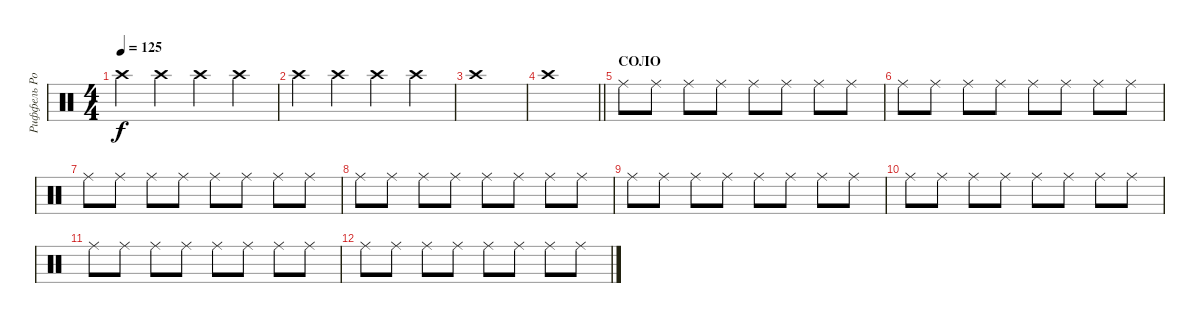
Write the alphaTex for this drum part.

\track ("Риффель Роман(хэты)" "Риффель Ро") {instrument percussion}
\staff {score}
\articulation defaults
\ts (4 4)
\tempo 125
\clef neutral
\ks c "Crash high (hit)".4{dy f} "Crash high (hit)".4 "Crash high (hit)".4 "Crash high (hit)".4
|
"Crash high (hit)".4 "Crash high (hit)".4 "Crash high (hit)".4 "Crash high (hit)".4 |
"Crash high (hit)".1 |
\barLineRight lightlight "Crash high (hit)".1
|
\section ("" "СОЛО")
"Ride (middle)".8 "Ride (middle)".8 "Ride (middle)".8 "Ride (middle)".8 "Ride (middle)".8 "Ride (middle)".8 "Ride (middle)".8 "Ride (middle)".8 |
"Ride (middle)".8 "Ride (middle)".8 "Ride (middle)".8 "Ride (middle)".8 "Ride (middle)".8 "Ride (middle)".8 "Ride (middle)".8 "Ride (middle)".8 |
"Ride (middle)".8 "Ride (middle)".8 "Ride (middle)".8 "Ride (middle)".8 "Ride (middle)".8 "Ride (middle)".8 "Ride (middle)".8 "Ride (middle)".8 |
"Ride (middle)".8 "Ride (middle)".8 "Ride (middle)".8 "Ride (middle)".8 "Ride (middle)".8 "Ride (middle)".8 "Ride (middle)".8 "Ride (middle)".8 |
"Ride (middle)".8 "Ride (middle)".8 "Ride (middle)".8 "Ride (middle)".8 "Ride (middle)".8 "Ride (middle)".8 "Ride (middle)".8 "Ride (middle)".8 |
"Ride (middle)".8 "Ride (middle)".8 "Ride (middle)".8 "Ride (middle)".8 "Ride (middle)".8 "Ride (middle)".8 "Ride (middle)".8 "Ride (middle)".8 |
"Ride (middle)".8 "Ride (middle)".8 "Ride (middle)".8 "Ride (middle)".8 "Ride (middle)".8 "Ride (middle)".8 "Ride (middle)".8 "Ride (middle)".8 |
"Ride (middle)".8 "Ride (middle)".8 "Ride (middle)".8 "Ride (middle)".8 "Ride (middle)".8 "Ride (middle)".8 "Ride (middle)".8 "Ride (middle)".8
